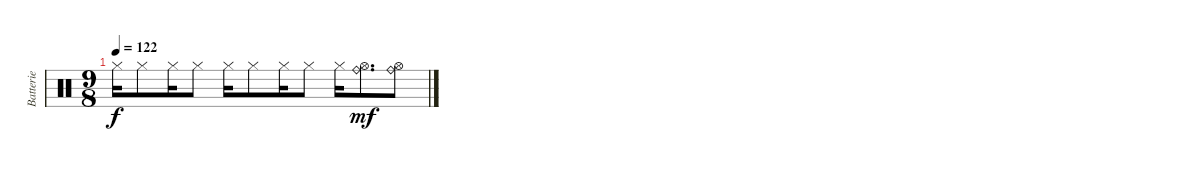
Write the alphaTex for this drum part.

\track ("Batterie" "Batterie") {instrument percussion}
\staff {score}
\articulation defaults
\ts (9 8)
\tempo 122
\clef neutral
\ks c "Hi-Hat (closed)".16{dy f} "Hi-Hat (closed)".8 "Hi-Hat (closed)".16 "Hi-Hat (closed)".8 "Hi-Hat (closed)".16 "Hi-Hat (closed)".8 "Hi-Hat (closed)".16 "Hi-Hat (closed)".8 "Hi-Hat (closed)".16
("Hi-Hat (open)" "Ride (bell)").8{d dy mf} ("Hi-Hat (open)" "Ride (bell)").8
